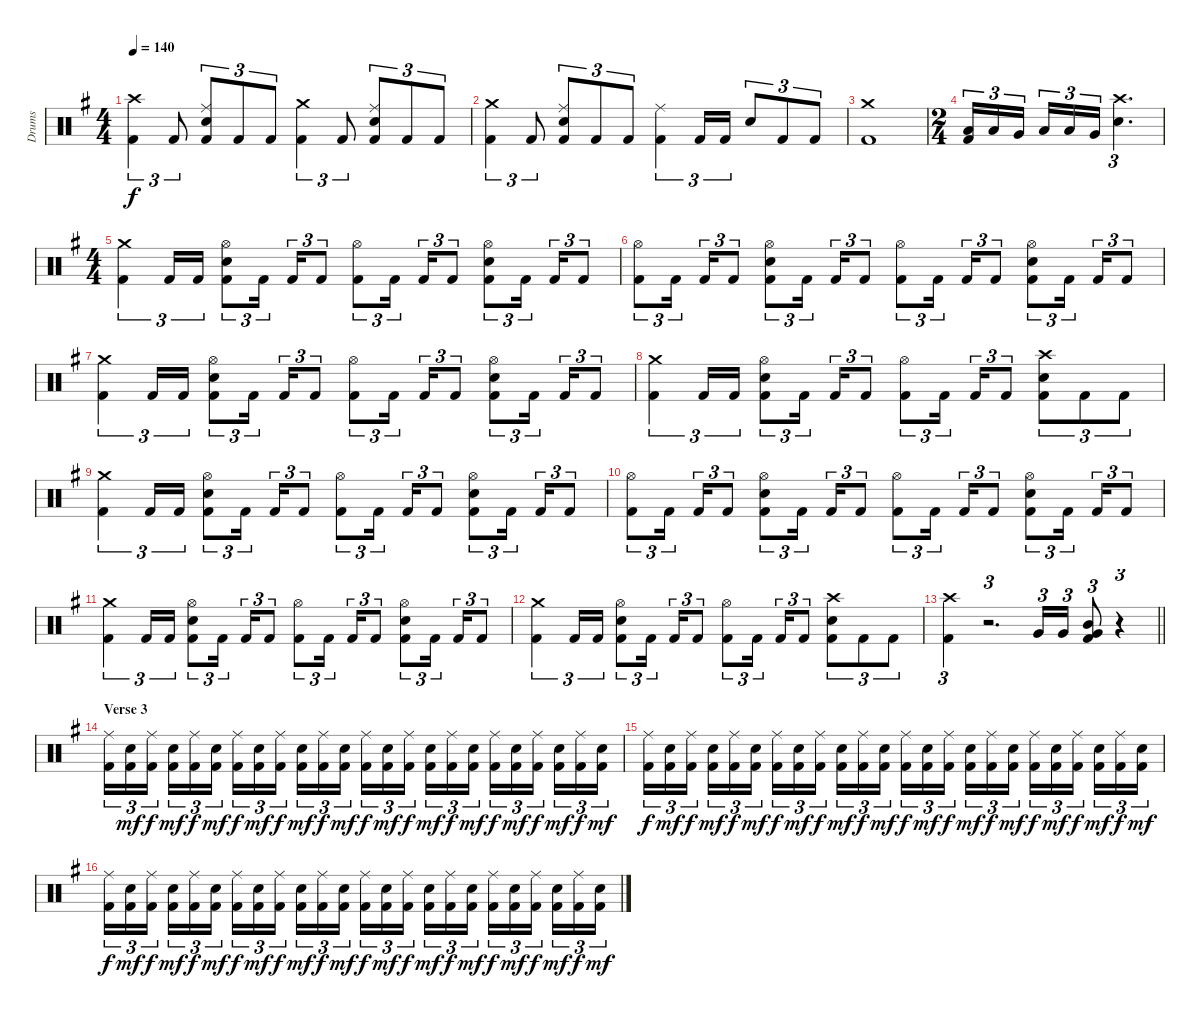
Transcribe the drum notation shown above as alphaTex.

\track ("Drums" "Drums") {instrument percussion}
\staff {score}
\articulation defaults
\ts (4 4)
\tempo 140
\clef neutral
\ks eminor
("Crash high (hit)" "Kick (hit) 2").4{tu (3 2) dy f} "Kick (hit) 2".8{tu (3 2)} ("Ride (middle)" "Electric Snare (hit)" "Kick (hit) 2").8{tu (3 2)} "Kick (hit) 2".8{tu (3 2)} "Kick (hit) 2".8{tu (3 2)} ("Crash medium (hit)" "Kick (hit) 2").4{tu (3 2)} "Kick (hit) 2".8{tu (3 2)} ("Ride (middle)" "Electric Snare (hit)" "Kick (hit) 2").8{tu (3 2)} "Kick (hit) 2".8{tu (3 2)} "Kick (hit) 2".8{tu (3 2)} |
("Crash medium (hit)" "Kick (hit) 2").4{tu (3 2)} "Kick (hit) 2".8{tu (3 2)} ("Ride (middle)" "Electric Snare (hit)" "Kick (hit) 2").8{tu (3 2)} "Kick (hit) 2".8{tu (3 2)} "Kick (hit) 2".8{tu (3 2)} ("Ride (middle)" "Kick (hit) 2").4{tu (3 2)} "Kick (hit) 2".16{tu (3 2)} "Kick (hit) 2".16{tu (3 2)} "Electric Snare (hit)".8{tu (3 2)} "Kick (hit) 2".8{tu (3 2)} "Kick (hit) 2".8{tu (3 2)} |
("Crash medium (hit)" "Kick (hit) 2").1 |
\ts (2 4)
("Low Tom (hit)" "Kick (hit) 2").16{tu (3 2)} "Low Tom (hit)".16{tu (3 2)} "Very Low Tom (hit)".16{tu (3 2) beam splitsecondary} "Low Tom (hit)".16{tu (3 2)} "Low Tom (hit)".16{tu (3 2)} "Very Low Tom (hit)".16{tu (3 2)} ("Crash high (hit)" "Electric Snare (hit)").4{d tu (3 2)} |
\ts (4 4)
("Crash medium (hit)" "Kick (hit) 2").4{tu (3 2)} "Kick (hit) 2".16{tu (3 2)} "Kick (hit) 2".16{tu (3 2)} ("Hi-Hat (open)" "Electric Snare (hit)" "Kick (hit) 2").8{tu (3 2)} "Kick (hit) 2".16{tu (3 2) beam splitsecondary} "Kick (hit) 2".16{tu (3 2)} "Kick (hit) 2".8{tu (3 2)} ("Hi-Hat (open)" "Kick (hit) 2").8{tu (3 2)} "Kick (hit) 2".16{tu (3 2) beam splitsecondary} "Kick (hit) 2".16{tu (3 2)} "Kick (hit) 2".8{tu (3 2)} ("Hi-Hat (open)" "Electric Snare (hit)" "Kick (hit) 2").8{tu (3 2)} "Kick (hit) 2".16{tu (3 2) beam splitsecondary} "Kick (hit) 2".16{tu (3 2)} "Kick (hit) 2".8{tu (3 2)} |
("Hi-Hat (open)" "Kick (hit) 2").8{tu (3 2)} "Kick (hit) 2".16{tu (3 2) beam splitsecondary} "Kick (hit) 2".16{tu (3 2)} "Kick (hit) 2".8{tu (3 2)} ("Hi-Hat (open)" "Electric Snare (hit)" "Kick (hit) 2").8{tu (3 2)} "Kick (hit) 2".16{tu (3 2) beam splitsecondary} "Kick (hit) 2".16{tu (3 2)} "Kick (hit) 2".8{tu (3 2)} ("Hi-Hat (open)" "Kick (hit) 2").8{tu (3 2)} "Kick (hit) 2".16{tu (3 2) beam splitsecondary} "Kick (hit) 2".16{tu (3 2)} "Kick (hit) 2".8{tu (3 2)} ("Hi-Hat (open)" "Electric Snare (hit)" "Kick (hit) 2").8{tu (3 2)} "Kick (hit) 2".16{tu (3 2) beam splitsecondary} "Kick (hit) 2".16{tu (3 2)} "Kick (hit) 2".8{tu (3 2)} |
("Crash medium (hit)" "Kick (hit) 2").4{tu (3 2)} "Kick (hit) 2".16{tu (3 2)} "Kick (hit) 2".16{tu (3 2)} ("Hi-Hat (open)" "Electric Snare (hit)" "Kick (hit) 2").8{tu (3 2)} "Kick (hit) 2".16{tu (3 2) beam splitsecondary} "Kick (hit) 2".16{tu (3 2)} "Kick (hit) 2".8{tu (3 2)} ("Hi-Hat (open)" "Kick (hit) 2").8{tu (3 2)} "Kick (hit) 2".16{tu (3 2) beam splitsecondary} "Kick (hit) 2".16{tu (3 2)} "Kick (hit) 2".8{tu (3 2)} ("Hi-Hat (open)" "Electric Snare (hit)" "Kick (hit) 2").8{tu (3 2)} "Kick (hit) 2".16{tu (3 2) beam splitsecondary} "Kick (hit) 2".16{tu (3 2)} "Kick (hit) 2".8{tu (3 2)} |
("Crash medium (hit)" "Kick (hit) 2").4{tu (3 2)} "Kick (hit) 2".16{tu (3 2)} "Kick (hit) 2".16{tu (3 2)} ("Hi-Hat (open)" "Electric Snare (hit)" "Kick (hit) 2").8{tu (3 2)} "Kick (hit) 2".16{tu (3 2) beam splitsecondary} "Kick (hit) 2".16{tu (3 2)} "Kick (hit) 2".8{tu (3 2)} ("Hi-Hat (open)" "Kick (hit) 2").8{tu (3 2)} "Kick (hit) 2".16{tu (3 2) beam splitsecondary} "Kick (hit) 2".16{tu (3 2)} "Kick (hit) 2".8{tu (3 2)} ("Crash high (hit)" "Electric Snare (hit)" "Kick (hit) 2").8{tu (3 2)} "Kick (hit) 2".8{tu (3 2)} "Kick (hit) 2".8{tu (3 2)} |
("Crash medium (hit)" "Kick (hit) 2").4{tu (3 2)} "Kick (hit) 2".16{tu (3 2)} "Kick (hit) 2".16{tu (3 2)} ("Hi-Hat (open)" "Electric Snare (hit)" "Kick (hit) 2").8{tu (3 2)} "Kick (hit) 2".16{tu (3 2) beam splitsecondary} "Kick (hit) 2".16{tu (3 2)} "Kick (hit) 2".8{tu (3 2)} ("Hi-Hat (open)" "Kick (hit) 2").8{tu (3 2)} "Kick (hit) 2".16{tu (3 2) beam splitsecondary} "Kick (hit) 2".16{tu (3 2)} "Kick (hit) 2".8{tu (3 2)} ("Hi-Hat (open)" "Electric Snare (hit)" "Kick (hit) 2").8{tu (3 2)} "Kick (hit) 2".16{tu (3 2) beam splitsecondary} "Kick (hit) 2".16{tu (3 2)} "Kick (hit) 2".8{tu (3 2)} |
("Hi-Hat (open)" "Kick (hit) 2").8{tu (3 2)} "Kick (hit) 2".16{tu (3 2) beam splitsecondary} "Kick (hit) 2".16{tu (3 2)} "Kick (hit) 2".8{tu (3 2)} ("Hi-Hat (open)" "Electric Snare (hit)" "Kick (hit) 2").8{tu (3 2)} "Kick (hit) 2".16{tu (3 2) beam splitsecondary} "Kick (hit) 2".16{tu (3 2)} "Kick (hit) 2".8{tu (3 2)} ("Hi-Hat (open)" "Kick (hit) 2").8{tu (3 2)} "Kick (hit) 2".16{tu (3 2) beam splitsecondary} "Kick (hit) 2".16{tu (3 2)} "Kick (hit) 2".8{tu (3 2)} ("Hi-Hat (open)" "Electric Snare (hit)" "Kick (hit) 2").8{tu (3 2)} "Kick (hit) 2".16{tu (3 2) beam splitsecondary} "Kick (hit) 2".16{tu (3 2)} "Kick (hit) 2".8{tu (3 2)} |
("Crash medium (hit)" "Kick (hit) 2").4{tu (3 2)} "Kick (hit) 2".16{tu (3 2)} "Kick (hit) 2".16{tu (3 2)} ("Hi-Hat (open)" "Electric Snare (hit)" "Kick (hit) 2").8{tu (3 2)} "Kick (hit) 2".16{tu (3 2) beam splitsecondary} "Kick (hit) 2".16{tu (3 2)} "Kick (hit) 2".8{tu (3 2)} ("Hi-Hat (open)" "Kick (hit) 2").8{tu (3 2)} "Kick (hit) 2".16{tu (3 2) beam splitsecondary} "Kick (hit) 2".16{tu (3 2)} "Kick (hit) 2".8{tu (3 2)} ("Hi-Hat (open)" "Electric Snare (hit)" "Kick (hit) 2").8{tu (3 2)} "Kick (hit) 2".16{tu (3 2) beam splitsecondary} "Kick (hit) 2".16{tu (3 2)} "Kick (hit) 2".8{tu (3 2)} |
("Crash medium (hit)" "Kick (hit) 2").4{tu (3 2)} "Kick (hit) 2".16{tu (3 2)} "Kick (hit) 2".16{tu (3 2)} ("Hi-Hat (open)" "Electric Snare (hit)" "Kick (hit) 2").8{tu (3 2)} "Kick (hit) 2".16{tu (3 2) beam splitsecondary} "Kick (hit) 2".16{tu (3 2)} "Kick (hit) 2".8{tu (3 2)} ("Hi-Hat (open)" "Kick (hit) 2").8{tu (3 2)} "Kick (hit) 2".16{tu (3 2) beam splitsecondary} "Kick (hit) 2".16{tu (3 2)} "Kick (hit) 2".8{tu (3 2)} ("Crash high (hit)" "Electric Snare (hit)" "Kick (hit) 2").8{tu (3 2)} "Kick (hit) 2".8{tu (3 2)} "Kick (hit) 2".8{tu (3 2)} |
\barLineRight lightlight
("Crash high (hit)" "Kick (hit) 2").4{tu (3 2)} r.2{d tu (3 2)} "Very Low Tom (hit)".16{tu (3 2)} "Very Low Tom (hit)".16{tu (3 2)} ("Mid Tom (hit)" "Very Low Tom (hit)" "Kick (hit) 2").8{tu (3 2)} r.4{tu (3 2)} |
\section ("" "Verse 3")
("Ride (middle)" "Kick (hit) 2").16{tu (3 2)} ("Electric Snare (hit)" "Kick (hit) 2").16{tu (3 2) dy mf} ("Ride (middle)" "Kick (hit) 2").16{tu (3 2) dy f beam splitsecondary} ("Electric Snare (hit)" "Kick (hit) 2").16{tu (3 2) dy mf} ("Ride (middle)" "Kick (hit) 2").16{tu (3 2) dy f} ("Electric Snare (hit)" "Kick (hit) 2").16{tu (3 2) dy mf} ("Ride (middle)" "Kick (hit) 2").16{tu (3 2) dy f} ("Electric Snare (hit)" "Kick (hit) 2").16{tu (3 2) dy mf} ("Ride (middle)" "Kick (hit) 2").16{tu (3 2) dy f beam splitsecondary} ("Electric Snare (hit)" "Kick (hit) 2").16{tu (3 2) dy mf} ("Ride (middle)" "Kick (hit) 2").16{tu (3 2) dy f} ("Electric Snare (hit)" "Kick (hit) 2").16{tu (3 2) dy mf} ("Ride (middle)" "Kick (hit) 2").16{tu (3 2) dy f} ("Electric Snare (hit)" "Kick (hit) 2").16{tu (3 2) dy mf} ("Ride (middle)" "Kick (hit) 2").16{tu (3 2) dy f beam splitsecondary} ("Electric Snare (hit)" "Kick (hit) 2").16{tu (3 2) dy mf} ("Ride (middle)" "Kick (hit) 2").16{tu (3 2) dy f} ("Electric Snare (hit)" "Kick (hit) 2").16{tu (3 2) dy mf} ("Ride (middle)" "Kick (hit) 2").16{tu (3 2) dy f} ("Electric Snare (hit)" "Kick (hit) 2").16{tu (3 2) dy mf} ("Ride (middle)" "Kick (hit) 2").16{tu (3 2) dy f beam splitsecondary} ("Electric Snare (hit)" "Kick (hit) 2").16{tu (3 2) dy mf} ("Ride (middle)" "Kick (hit) 2").16{tu (3 2) dy f} ("Electric Snare (hit)" "Kick (hit) 2").16{tu (3 2) dy mf} |
("Ride (middle)" "Kick (hit) 2").16{tu (3 2) dy f} ("Electric Snare (hit)" "Kick (hit) 2").16{tu (3 2) dy mf} ("Ride (middle)" "Kick (hit) 2").16{tu (3 2) dy f beam splitsecondary} ("Electric Snare (hit)" "Kick (hit) 2").16{tu (3 2) dy mf} ("Ride (middle)" "Kick (hit) 2").16{tu (3 2) dy f} ("Electric Snare (hit)" "Kick (hit) 2").16{tu (3 2) dy mf} ("Ride (middle)" "Kick (hit) 2").16{tu (3 2) dy f} ("Electric Snare (hit)" "Kick (hit) 2").16{tu (3 2) dy mf} ("Ride (middle)" "Kick (hit) 2").16{tu (3 2) dy f beam splitsecondary} ("Electric Snare (hit)" "Kick (hit) 2").16{tu (3 2) dy mf} ("Ride (middle)" "Kick (hit) 2").16{tu (3 2) dy f} ("Electric Snare (hit)" "Kick (hit) 2").16{tu (3 2) dy mf} ("Ride (middle)" "Kick (hit) 2").16{tu (3 2) dy f} ("Electric Snare (hit)" "Kick (hit) 2").16{tu (3 2) dy mf} ("Ride (middle)" "Kick (hit) 2").16{tu (3 2) dy f beam splitsecondary} ("Electric Snare (hit)" "Kick (hit) 2").16{tu (3 2) dy mf} ("Ride (middle)" "Kick (hit) 2").16{tu (3 2) dy f} ("Electric Snare (hit)" "Kick (hit) 2").16{tu (3 2) dy mf} ("Ride (middle)" "Kick (hit) 2").16{tu (3 2) dy f} ("Electric Snare (hit)" "Kick (hit) 2").16{tu (3 2) dy mf} ("Ride (middle)" "Kick (hit) 2").16{tu (3 2) dy f beam splitsecondary} ("Electric Snare (hit)" "Kick (hit) 2").16{tu (3 2) dy mf} ("Ride (middle)" "Kick (hit) 2").16{tu (3 2) dy f} ("Electric Snare (hit)" "Kick (hit) 2").16{tu (3 2) dy mf} |
("Ride (middle)" "Kick (hit) 2").16{tu (3 2) dy f} ("Electric Snare (hit)" "Kick (hit) 2").16{tu (3 2) dy mf} ("Ride (middle)" "Kick (hit) 2").16{tu (3 2) dy f beam splitsecondary} ("Electric Snare (hit)" "Kick (hit) 2").16{tu (3 2) dy mf} ("Ride (middle)" "Kick (hit) 2").16{tu (3 2) dy f} ("Electric Snare (hit)" "Kick (hit) 2").16{tu (3 2) dy mf} ("Ride (middle)" "Kick (hit) 2").16{tu (3 2) dy f} ("Electric Snare (hit)" "Kick (hit) 2").16{tu (3 2) dy mf} ("Ride (middle)" "Kick (hit) 2").16{tu (3 2) dy f beam splitsecondary} ("Electric Snare (hit)" "Kick (hit) 2").16{tu (3 2) dy mf} ("Ride (middle)" "Kick (hit) 2").16{tu (3 2) dy f} ("Electric Snare (hit)" "Kick (hit) 2").16{tu (3 2) dy mf} ("Ride (middle)" "Kick (hit) 2").16{tu (3 2) dy f} ("Electric Snare (hit)" "Kick (hit) 2").16{tu (3 2) dy mf} ("Ride (middle)" "Kick (hit) 2").16{tu (3 2) dy f beam splitsecondary} ("Electric Snare (hit)" "Kick (hit) 2").16{tu (3 2) dy mf} ("Ride (middle)" "Kick (hit) 2").16{tu (3 2) dy f} ("Electric Snare (hit)" "Kick (hit) 2").16{tu (3 2) dy mf} ("Ride (middle)" "Kick (hit) 2").16{tu (3 2) dy f} ("Electric Snare (hit)" "Kick (hit) 2").16{tu (3 2) dy mf} ("Ride (middle)" "Kick (hit) 2").16{tu (3 2) dy f beam splitsecondary} ("Electric Snare (hit)" "Kick (hit) 2").16{tu (3 2) dy mf} ("Ride (middle)" "Kick (hit) 2").16{tu (3 2) dy f} ("Electric Snare (hit)" "Kick (hit) 2").16{tu (3 2) dy mf}
